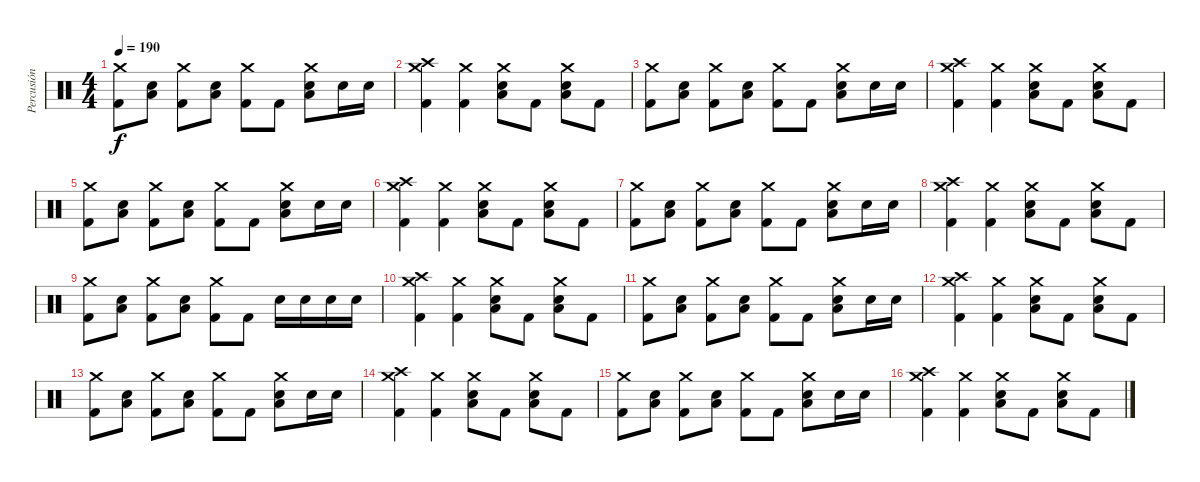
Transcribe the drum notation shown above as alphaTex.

\track ("Percusión" "Percusión") {instrument percussion}
\staff {score}
\articulation defaults
\ts (4 4)
\tempo 190
\clef neutral
\ks c
("Crash medium (hit)" "Kick (hit) 2").8{dy f} ("Low Tom (hit)" "Snare (hit) 2").8 ("Crash medium (hit)" "Kick (hit) 2").8 ("Low Tom (hit)" "Snare (hit) 2").8 ("Crash medium (hit)" "Kick (hit) 2").8 "Kick (hit) 2".8 ("Crash medium (hit)" "Low Tom (hit)" "Snare (hit) 2").8 "Snare (hit) 2".16 "Snare (hit) 2".16 |
("Crash medium (hit)" "Crash high (hit)" "Kick (hit) 2").4 ("Crash medium (hit)" "Kick (hit) 2").4 ("Crash medium (hit)" "Low Tom (hit)" "Snare (hit) 2").8 "Kick (hit) 2".8 ("Crash medium (hit)" "Low Tom (hit)" "Snare (hit) 2").8 "Kick (hit) 2".8 |
("Crash medium (hit)" "Kick (hit) 2").8 ("Low Tom (hit)" "Snare (hit) 2").8 ("Crash medium (hit)" "Kick (hit) 2").8 ("Low Tom (hit)" "Snare (hit) 2").8 ("Crash medium (hit)" "Kick (hit) 2").8 "Kick (hit) 2".8 ("Crash medium (hit)" "Low Tom (hit)" "Snare (hit) 2").8 "Snare (hit) 2".16 "Snare (hit) 2".16 |
("Crash medium (hit)" "Crash high (hit)" "Kick (hit) 2").4 ("Crash medium (hit)" "Kick (hit) 2").4 ("Crash medium (hit)" "Low Tom (hit)" "Snare (hit) 2").8 "Kick (hit) 2".8 ("Crash medium (hit)" "Low Tom (hit)" "Snare (hit) 2").8 "Kick (hit) 2".8 |
("Crash medium (hit)" "Kick (hit) 2").8 ("Low Tom (hit)" "Snare (hit) 2").8 ("Crash medium (hit)" "Kick (hit) 2").8 ("Low Tom (hit)" "Snare (hit) 2").8 ("Crash medium (hit)" "Kick (hit) 2").8 "Kick (hit) 2".8 ("Crash medium (hit)" "Low Tom (hit)" "Snare (hit) 2").8 "Snare (hit) 2".16 "Snare (hit) 2".16 |
("Crash medium (hit)" "Crash high (hit)" "Kick (hit) 2").4 ("Crash medium (hit)" "Kick (hit) 2").4 ("Crash medium (hit)" "Low Tom (hit)" "Snare (hit) 2").8 "Kick (hit) 2".8 ("Crash medium (hit)" "Low Tom (hit)" "Snare (hit) 2").8 "Kick (hit) 2".8 |
("Crash medium (hit)" "Kick (hit) 2").8 ("Low Tom (hit)" "Snare (hit) 2").8 ("Crash medium (hit)" "Kick (hit) 2").8 ("Low Tom (hit)" "Snare (hit) 2").8 ("Crash medium (hit)" "Kick (hit) 2").8 "Kick (hit) 2".8 ("Crash medium (hit)" "Low Tom (hit)" "Snare (hit) 2").8 "Snare (hit) 2".16 "Snare (hit) 2".16 |
("Crash medium (hit)" "Crash high (hit)" "Kick (hit) 2").4 ("Crash medium (hit)" "Kick (hit) 2").4 ("Crash medium (hit)" "Low Tom (hit)" "Snare (hit) 2").8 "Kick (hit) 2".8 ("Crash medium (hit)" "Low Tom (hit)" "Snare (hit) 2").8 "Kick (hit) 2".8 |
("Crash medium (hit)" "Kick (hit) 2").8 ("Low Tom (hit)" "Snare (hit) 2").8 ("Crash medium (hit)" "Kick (hit) 2").8 ("Low Tom (hit)" "Snare (hit) 2").8 ("Crash medium (hit)" "Kick (hit) 2").8 "Kick (hit) 2".8 "Snare (hit) 2".16 "Snare (hit) 2".16 "Snare (hit) 2".16 "Snare (hit) 2".16 |
("Crash medium (hit)" "Crash high (hit)" "Kick (hit) 2").4 ("Crash medium (hit)" "Kick (hit) 2").4 ("Crash medium (hit)" "Low Tom (hit)" "Snare (hit) 2").8 "Kick (hit) 2".8 ("Crash medium (hit)" "Low Tom (hit)" "Snare (hit) 2").8 "Kick (hit) 2".8 |
("Crash medium (hit)" "Kick (hit) 2").8 ("Low Tom (hit)" "Snare (hit) 2").8 ("Crash medium (hit)" "Kick (hit) 2").8 ("Low Tom (hit)" "Snare (hit) 2").8 ("Crash medium (hit)" "Kick (hit) 2").8 "Kick (hit) 2".8 ("Crash medium (hit)" "Low Tom (hit)" "Snare (hit) 2").8 "Snare (hit) 2".16 "Snare (hit) 2".16 |
("Crash medium (hit)" "Crash high (hit)" "Kick (hit) 2").4 ("Crash medium (hit)" "Kick (hit) 2").4 ("Crash medium (hit)" "Low Tom (hit)" "Snare (hit) 2").8 "Kick (hit) 2".8 ("Crash medium (hit)" "Low Tom (hit)" "Snare (hit) 2").8 "Kick (hit) 2".8 |
("Crash medium (hit)" "Kick (hit) 2").8 ("Low Tom (hit)" "Snare (hit) 2").8 ("Crash medium (hit)" "Kick (hit) 2").8 ("Low Tom (hit)" "Snare (hit) 2").8 ("Crash medium (hit)" "Kick (hit) 2").8 "Kick (hit) 2".8 ("Crash medium (hit)" "Low Tom (hit)" "Snare (hit) 2").8 "Snare (hit) 2".16 "Snare (hit) 2".16 |
("Crash medium (hit)" "Crash high (hit)" "Kick (hit) 2").4 ("Crash medium (hit)" "Kick (hit) 2").4 ("Crash medium (hit)" "Low Tom (hit)" "Snare (hit) 2").8 "Kick (hit) 2".8 ("Crash medium (hit)" "Low Tom (hit)" "Snare (hit) 2").8 "Kick (hit) 2".8 |
("Crash medium (hit)" "Kick (hit) 2").8 ("Low Tom (hit)" "Snare (hit) 2").8 ("Crash medium (hit)" "Kick (hit) 2").8 ("Low Tom (hit)" "Snare (hit) 2").8 ("Crash medium (hit)" "Kick (hit) 2").8 "Kick (hit) 2".8 ("Crash medium (hit)" "Low Tom (hit)" "Snare (hit) 2").8 "Snare (hit) 2".16 "Snare (hit) 2".16 |
("Crash medium (hit)" "Crash high (hit)" "Kick (hit) 2").4 ("Crash medium (hit)" "Kick (hit) 2").4 ("Crash medium (hit)" "Low Tom (hit)" "Snare (hit) 2").8 "Kick (hit) 2".8 ("Crash medium (hit)" "Low Tom (hit)" "Snare (hit) 2").8 "Kick (hit) 2".8
